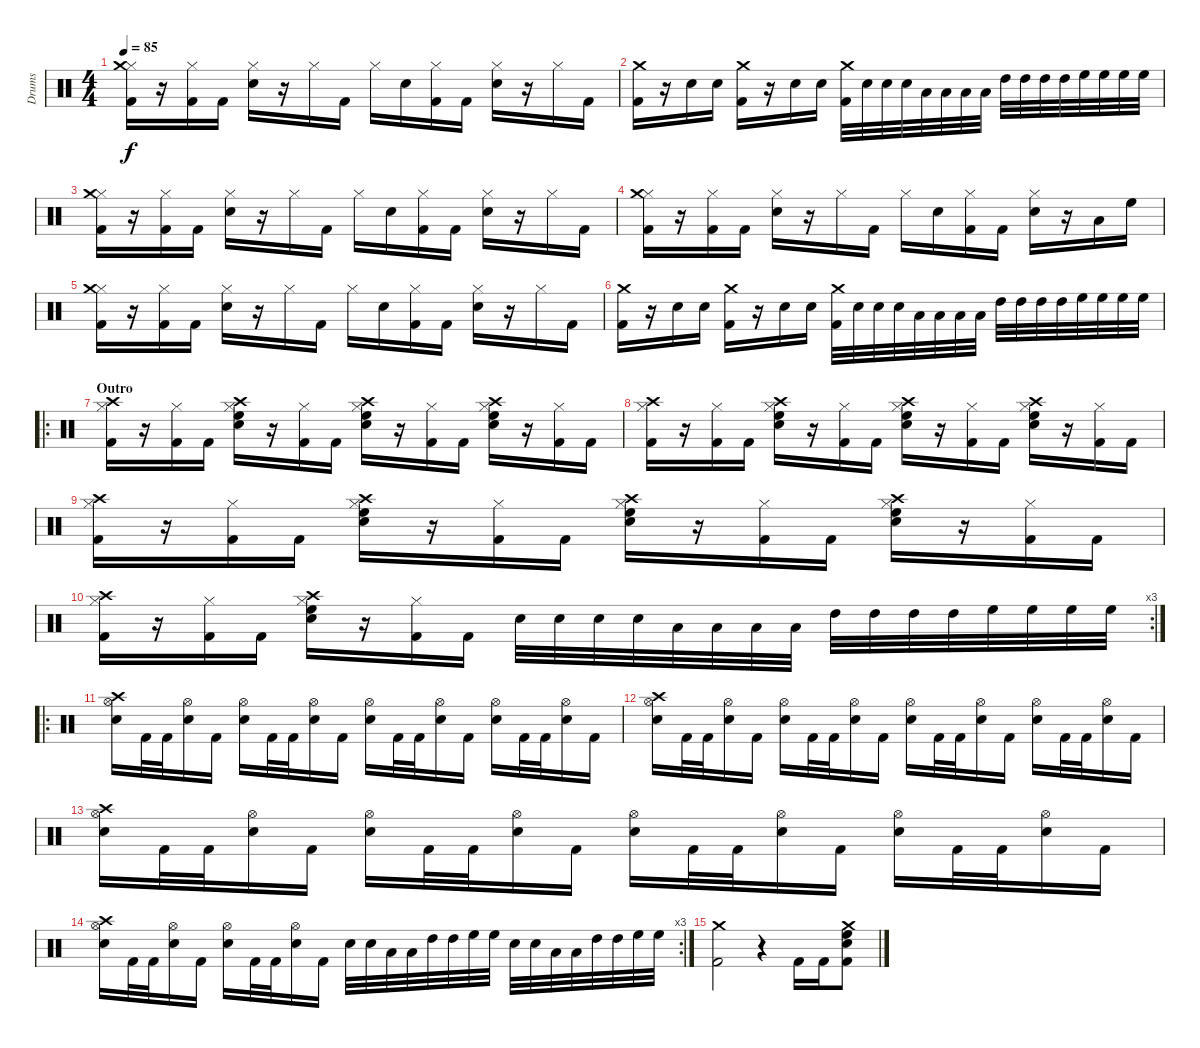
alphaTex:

\track ("Drums" "Drums") {instrument percussion}
\staff {score}
\articulation defaults
\ts (4 4)
\tempo 85
\clef neutral
\ks c
("Hi-Hat (closed)" "Kick (hit) 2" "Crash medium (hit)").16{dy f} r.16 ("Hi-Hat (closed)" "Kick (hit) 2").16 "Kick (hit) 2".16 ("Hi-Hat (closed)" "Snare (hit) 2").16 r.16 "Hi-Hat (closed)".16 "Kick (hit) 2".16 "Hi-Hat (closed)".16 "Snare (hit) 2".16 ("Hi-Hat (closed)" "Kick (hit) 2").16 "Kick (hit) 2".16 ("Hi-Hat (closed)" "Snare (hit) 2").16 r.16 "Hi-Hat (closed)".16 "Kick (hit) 2".16 |
("Kick (hit) 2" "Crash medium (hit)").16 r.16 "Snare (hit) 2".16 "Snare (hit) 2".16 ("Kick (hit) 2" "Crash medium (hit)").16 r.16 "Snare (hit) 2".16 "Snare (hit) 2".16 ("Kick (hit) 2" "Crash medium (hit)").32 "Snare (hit) 2".32 "Snare (hit) 2".32 "Snare (hit) 2".32 "Low Tom (hit)".32 "Low Tom (hit)".32 "Low Tom (hit)".32 "Low Tom (hit)".32 "High Tom (hit)".32 "High Tom (hit)".32 "High Tom (hit)".32 "High Tom (hit)".32 "High Floor Tom (hit)".32 "High Floor Tom (hit)".32 "High Floor Tom (hit)".32 "High Floor Tom (hit)".32 |
("Hi-Hat (closed)" "Kick (hit) 2" "Crash medium (hit)").16 r.16 ("Hi-Hat (closed)" "Kick (hit) 2").16 "Kick (hit) 2".16 ("Hi-Hat (closed)" "Snare (hit) 2").16 r.16 "Hi-Hat (closed)".16 "Kick (hit) 2".16 "Hi-Hat (closed)".16 "Snare (hit) 2".16 ("Hi-Hat (closed)" "Kick (hit) 2").16 "Kick (hit) 2".16 ("Hi-Hat (closed)" "Snare (hit) 2").16 r.16 "Hi-Hat (closed)".16 "Kick (hit) 2".16 |
("Hi-Hat (closed)" "Kick (hit) 2" "Crash medium (hit)").16 r.16 ("Hi-Hat (closed)" "Kick (hit) 2").16 "Kick (hit) 2".16 ("Hi-Hat (closed)" "Snare (hit) 2").16 r.16 "Hi-Hat (closed)".16 "Kick (hit) 2".16 "Hi-Hat (closed)".16 "Snare (hit) 2".16 ("Hi-Hat (closed)" "Kick (hit) 2").16 "Kick (hit) 2".16 ("Hi-Hat (closed)" "Snare (hit) 2").16 r.16 "Low Tom (hit)".16 "High Floor Tom (hit)".16 |
("Hi-Hat (closed)" "Kick (hit) 2" "Crash medium (hit)").16 r.16 ("Hi-Hat (closed)" "Kick (hit) 2").16 "Kick (hit) 2".16 ("Hi-Hat (closed)" "Snare (hit) 2").16 r.16 "Hi-Hat (closed)".16 "Kick (hit) 2".16 "Hi-Hat (closed)".16 "Snare (hit) 2".16 ("Hi-Hat (closed)" "Kick (hit) 2").16 "Kick (hit) 2".16 ("Hi-Hat (closed)" "Snare (hit) 2").16 r.16 "Hi-Hat (closed)".16 "Kick (hit) 2".16 |
("Kick (hit) 2" "Crash medium (hit)").16 r.16 "Snare (hit) 2".16 "Snare (hit) 2".16 ("Kick (hit) 2" "Crash medium (hit)").16 r.16 "Snare (hit) 2".16 "Snare (hit) 2".16 ("Kick (hit) 2" "Crash medium (hit)").32 "Snare (hit) 2".32 "Snare (hit) 2".32 "Snare (hit) 2".32 "Low Tom (hit)".32 "Low Tom (hit)".32 "Low Tom (hit)".32 "Low Tom (hit)".32 "High Tom (hit)".32 "High Tom (hit)".32 "High Tom (hit)".32 "High Tom (hit)".32 "High Floor Tom (hit)".32 "High Floor Tom (hit)".32 "High Floor Tom (hit)".32 "High Floor Tom (hit)".32 |
\ro
\section ("" "Outro")
("Hi-Hat (closed)" "Kick (hit) 2" "Crash high (hit)").16 r.16 ("Hi-Hat (closed)" "Kick (hit) 2").16 "Kick (hit) 2".16 ("Hi-Hat (closed)" "Snare (hit) 2" "Crash high (hit)" "High Floor Tom (hit)").16 r.16 ("Hi-Hat (closed)" "Kick (hit) 2").16 "Kick (hit) 2".16 ("Hi-Hat (closed)" "Snare (hit) 2" "Crash high (hit)" "High Floor Tom (hit)").16 r.16 ("Hi-Hat (closed)" "Kick (hit) 2").16 "Kick (hit) 2".16 ("Hi-Hat (closed)" "Snare (hit) 2" "Crash high (hit)" "High Floor Tom (hit)").16 r.16 ("Hi-Hat (closed)" "Kick (hit) 2").16 "Kick (hit) 2".16 |
("Hi-Hat (closed)" "Kick (hit) 2" "Crash high (hit)").16 r.16 ("Hi-Hat (closed)" "Kick (hit) 2").16 "Kick (hit) 2".16 ("Hi-Hat (closed)" "Snare (hit) 2" "Crash high (hit)" "High Floor Tom (hit)").16 r.16 ("Hi-Hat (closed)" "Kick (hit) 2").16 "Kick (hit) 2".16 ("Hi-Hat (closed)" "Snare (hit) 2" "Crash high (hit)" "High Floor Tom (hit)").16 r.16 ("Hi-Hat (closed)" "Kick (hit) 2").16 "Kick (hit) 2".16 ("Hi-Hat (closed)" "Snare (hit) 2" "Crash high (hit)" "High Floor Tom (hit)").16 r.16 ("Hi-Hat (closed)" "Kick (hit) 2").16 "Kick (hit) 2".16 |
("Hi-Hat (closed)" "Kick (hit) 2" "Crash high (hit)").16 r.16 ("Hi-Hat (closed)" "Kick (hit) 2").16 "Kick (hit) 2".16 ("Hi-Hat (closed)" "Snare (hit) 2" "Crash high (hit)" "High Floor Tom (hit)").16 r.16 ("Hi-Hat (closed)" "Kick (hit) 2").16 "Kick (hit) 2".16 ("Hi-Hat (closed)" "Snare (hit) 2" "Crash high (hit)" "High Floor Tom (hit)").16 r.16 ("Hi-Hat (closed)" "Kick (hit) 2").16 "Kick (hit) 2".16 ("Hi-Hat (closed)" "Snare (hit) 2" "Crash high (hit)" "High Floor Tom (hit)").16 r.16 ("Hi-Hat (closed)" "Kick (hit) 2").16 "Kick (hit) 2".16 |
\rc 3
("Hi-Hat (closed)" "Kick (hit) 2" "Crash high (hit)").16 r.16 ("Hi-Hat (closed)" "Kick (hit) 2").16 "Kick (hit) 2".16 ("Hi-Hat (closed)" "Snare (hit) 2" "Crash high (hit)" "High Floor Tom (hit)").16 r.16 ("Hi-Hat (closed)" "Kick (hit) 2").16 "Kick (hit) 2".16 "Snare (hit) 2".32 "Snare (hit) 2".32 "Snare (hit) 2".32 "Snare (hit) 2".32 "Low Tom (hit)".32 "Low Tom (hit)".32 "Low Tom (hit)".32 "Low Tom (hit)".32 "High Tom (hit)".32 "High Tom (hit)".32 "High Tom (hit)".32 "High Tom (hit)".32 "High Floor Tom (hit)".32 "High Floor Tom (hit)".32 "High Floor Tom (hit)".32 "High Floor Tom (hit)".32 |
\ro
("Hi-Hat (open)" "Snare (hit) 2" "Crash high (hit)").16 "Kick (hit) 2".32 "Kick (hit) 2".32 ("Hi-Hat (open)" "Snare (hit) 2").16 "Kick (hit) 2".16 ("Hi-Hat (open)" "Snare (hit) 2").16 "Kick (hit) 2".32 "Kick (hit) 2".32 ("Hi-Hat (open)" "Snare (hit) 2").16 "Kick (hit) 2".16 ("Hi-Hat (open)" "Snare (hit) 2").16 "Kick (hit) 2".32 "Kick (hit) 2".32 ("Hi-Hat (open)" "Snare (hit) 2").16 "Kick (hit) 2".16 ("Hi-Hat (open)" "Snare (hit) 2").16 "Kick (hit) 2".32 "Kick (hit) 2".32 ("Hi-Hat (open)" "Snare (hit) 2").16 "Kick (hit) 2".16 |
("Hi-Hat (open)" "Snare (hit) 2" "Crash high (hit)").16 "Kick (hit) 2".32 "Kick (hit) 2".32 ("Hi-Hat (open)" "Snare (hit) 2").16 "Kick (hit) 2".16 ("Hi-Hat (open)" "Snare (hit) 2").16 "Kick (hit) 2".32 "Kick (hit) 2".32 ("Hi-Hat (open)" "Snare (hit) 2").16 "Kick (hit) 2".16 ("Hi-Hat (open)" "Snare (hit) 2").16 "Kick (hit) 2".32 "Kick (hit) 2".32 ("Hi-Hat (open)" "Snare (hit) 2").16 "Kick (hit) 2".16 ("Hi-Hat (open)" "Snare (hit) 2").16 "Kick (hit) 2".32 "Kick (hit) 2".32 ("Hi-Hat (open)" "Snare (hit) 2").16 "Kick (hit) 2".16 |
("Hi-Hat (open)" "Snare (hit) 2" "Crash high (hit)").16 "Kick (hit) 2".32 "Kick (hit) 2".32 ("Hi-Hat (open)" "Snare (hit) 2").16 "Kick (hit) 2".16 ("Hi-Hat (open)" "Snare (hit) 2").16 "Kick (hit) 2".32 "Kick (hit) 2".32 ("Hi-Hat (open)" "Snare (hit) 2").16 "Kick (hit) 2".16 ("Hi-Hat (open)" "Snare (hit) 2").16 "Kick (hit) 2".32 "Kick (hit) 2".32 ("Hi-Hat (open)" "Snare (hit) 2").16 "Kick (hit) 2".16 ("Hi-Hat (open)" "Snare (hit) 2").16 "Kick (hit) 2".32 "Kick (hit) 2".32 ("Hi-Hat (open)" "Snare (hit) 2").16 "Kick (hit) 2".16 |
\rc 3
("Hi-Hat (open)" "Snare (hit) 2" "Crash high (hit)").16 "Kick (hit) 2".32 "Kick (hit) 2".32 ("Hi-Hat (open)" "Snare (hit) 2").16 "Kick (hit) 2".16 ("Hi-Hat (open)" "Snare (hit) 2").16 "Kick (hit) 2".32 "Kick (hit) 2".32 ("Hi-Hat (open)" "Snare (hit) 2").16 "Kick (hit) 2".16 "Snare (hit) 2".32 "Snare (hit) 2".32 "Low Tom (hit)".32 "Low Tom (hit)".32 "High Tom (hit)".32 "High Tom (hit)".32 "High Floor Tom (hit)".32 "High Floor Tom (hit)".32 "Snare (hit) 2".32 "Snare (hit) 2".32 "Low Tom (hit)".32 "Low Tom (hit)".32 "High Tom (hit)".32 "High Tom (hit)".32 "High Floor Tom (hit)".32 "High Floor Tom (hit)".32 |
("Kick (hit) 2" "Crash medium (hit)").2 r.4 "Kick (hit) 2".16 "Kick (hit) 2".16 ("Kick (hit) 2" "Snare (hit) 2" "Crash medium (hit)" "High Floor Tom (hit)").8
